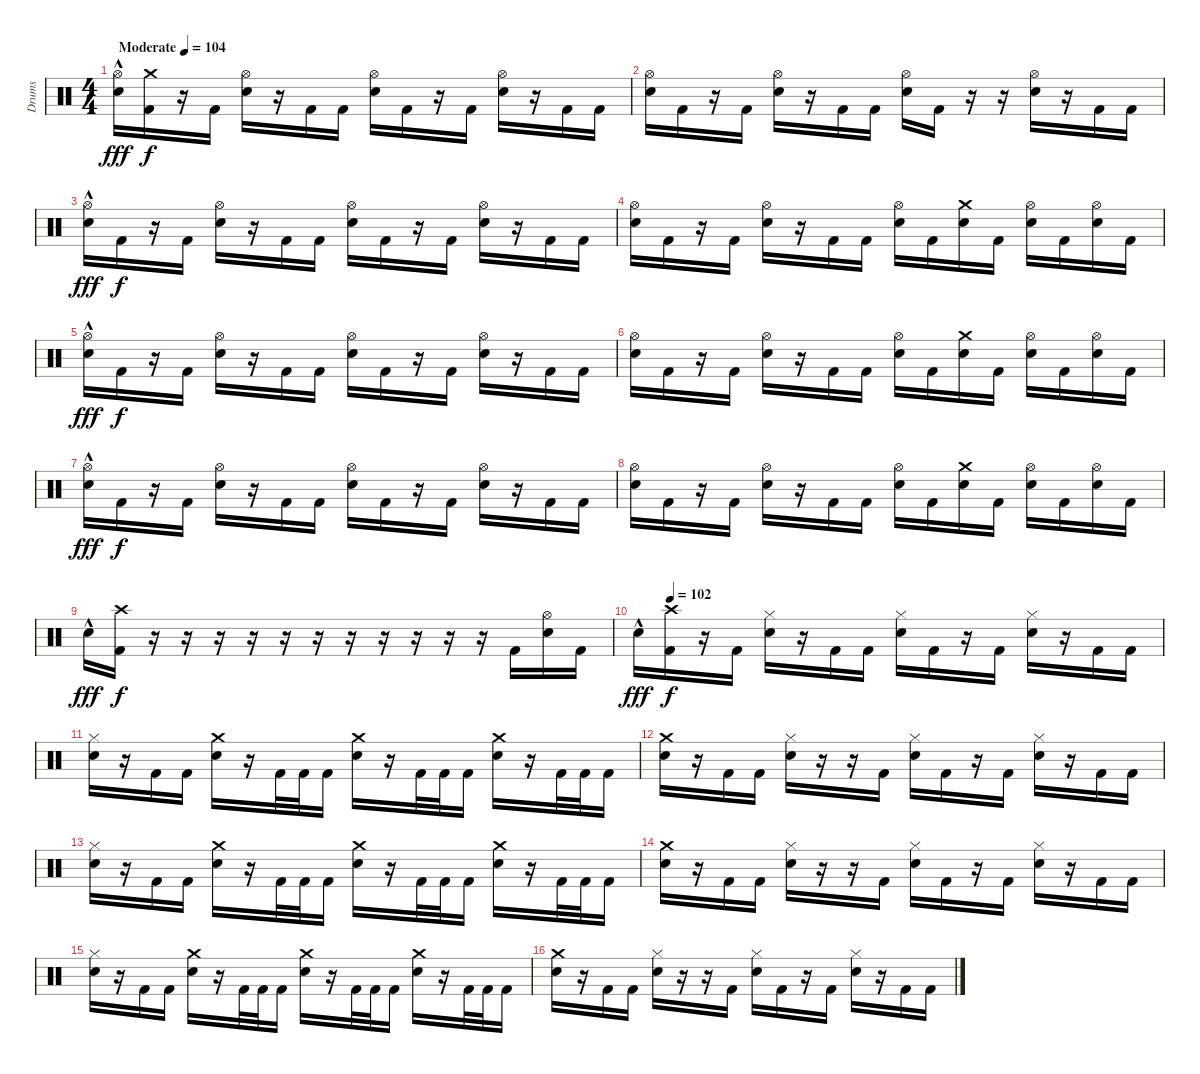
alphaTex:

\track ("Drums" "Drums") {instrument percussion}
\staff {score}
\articulation defaults
\ts (4 4)
\tempo (104 "Moderate")
\clef neutral
\ks c
("Hi-Hat (open)" "Electric Snare (hit)"{hac}).16{dy fff} ("Crash medium (hit)" "Kick (hit) 2").16{dy f} r.16 "Kick (hit) 2".16 ("Hi-Hat (open)" "Electric Snare (hit)").16 r.16 "Kick (hit) 2".16 "Kick (hit) 2".16 ("Hi-Hat (open)" "Electric Snare (hit)").16 "Kick (hit) 2".16 r.16 "Kick (hit) 2".16 ("Hi-Hat (open)" "Electric Snare (hit)").16 r.16 "Kick (hit) 2".16 "Kick (hit) 2".16 |
("Hi-Hat (open)" "Electric Snare (hit)").16 "Kick (hit) 2".16 r.16 "Kick (hit) 2".16 ("Hi-Hat (open)" "Electric Snare (hit)").16 r.16 "Kick (hit) 2".16 "Kick (hit) 2".16 ("Hi-Hat (open)" "Electric Snare (hit)").16 "Kick (hit) 2".16 r.16 r.16 ("Hi-Hat (open)" "Electric Snare (hit)").16 r.16 "Kick (hit) 2".16 "Kick (hit) 2".16 |
("Hi-Hat (open)" "Electric Snare (hit)"{hac}).16{dy fff} "Kick (hit) 2".16{dy f} r.16 "Kick (hit) 2".16 ("Hi-Hat (open)" "Electric Snare (hit)").16 r.16 "Kick (hit) 2".16 "Kick (hit) 2".16 ("Hi-Hat (open)" "Electric Snare (hit)").16 "Kick (hit) 2".16 r.16 "Kick (hit) 2".16 ("Hi-Hat (open)" "Electric Snare (hit)").16 r.16 "Kick (hit) 2".16 "Kick (hit) 2".16 |
("Hi-Hat (open)" "Electric Snare (hit)").16 "Kick (hit) 2".16 r.16 "Kick (hit) 2".16 ("Hi-Hat (open)" "Electric Snare (hit)").16 r.16 "Kick (hit) 2".16 "Kick (hit) 2".16 ("Hi-Hat (open)" "Electric Snare (hit)").16 "Kick (hit) 2".16 ("Crash medium (hit)" "Electric Snare (hit)").16 "Kick (hit) 2".16 ("Hi-Hat (open)" "Electric Snare (hit)").16 "Kick (hit) 2".16 ("Hi-Hat (open)" "Electric Snare (hit)").16 "Kick (hit) 2".16 |
("Hi-Hat (open)" "Electric Snare (hit)"{hac}).16{dy fff} "Kick (hit) 2".16{dy f} r.16 "Kick (hit) 2".16 ("Hi-Hat (open)" "Electric Snare (hit)").16 r.16 "Kick (hit) 2".16 "Kick (hit) 2".16 ("Hi-Hat (open)" "Electric Snare (hit)").16 "Kick (hit) 2".16 r.16 "Kick (hit) 2".16 ("Hi-Hat (open)" "Electric Snare (hit)").16 r.16 "Kick (hit) 2".16 "Kick (hit) 2".16 |
("Hi-Hat (open)" "Electric Snare (hit)").16 "Kick (hit) 2".16 r.16 "Kick (hit) 2".16 ("Hi-Hat (open)" "Electric Snare (hit)").16 r.16 "Kick (hit) 2".16 "Kick (hit) 2".16 ("Hi-Hat (open)" "Electric Snare (hit)").16 "Kick (hit) 2".16 ("Crash medium (hit)" "Electric Snare (hit)").16 "Kick (hit) 2".16 ("Hi-Hat (open)" "Electric Snare (hit)").16 "Kick (hit) 2".16 ("Hi-Hat (open)" "Electric Snare (hit)").16 "Kick (hit) 2".16 |
("Hi-Hat (open)" "Electric Snare (hit)"{hac}).16{dy fff} "Kick (hit) 2".16{dy f} r.16 "Kick (hit) 2".16 ("Hi-Hat (open)" "Electric Snare (hit)").16 r.16 "Kick (hit) 2".16 "Kick (hit) 2".16 ("Hi-Hat (open)" "Electric Snare (hit)").16 "Kick (hit) 2".16 r.16 "Kick (hit) 2".16 ("Hi-Hat (open)" "Electric Snare (hit)").16 r.16 "Kick (hit) 2".16 "Kick (hit) 2".16 |
("Hi-Hat (open)" "Electric Snare (hit)").16 "Kick (hit) 2".16 r.16 "Kick (hit) 2".16 ("Hi-Hat (open)" "Electric Snare (hit)").16 r.16 "Kick (hit) 2".16 "Kick (hit) 2".16 ("Hi-Hat (open)" "Electric Snare (hit)").16 "Kick (hit) 2".16 ("Crash medium (hit)" "Electric Snare (hit)").16 "Kick (hit) 2".16 ("Hi-Hat (open)" "Electric Snare (hit)").16 "Kick (hit) 2".16 ("Hi-Hat (open)" "Electric Snare (hit)").16 "Kick (hit) 2".16 |
"Electric Snare (hit)"{hac}.16{dy fff} ("Crash high (hit)" "Kick (hit) 2").16{dy f} r.16 r.16 r.16 r.16 r.16 r.16 r.16 r.16 r.16 r.16 r.16 "Kick (hit) 2".16 ("Hi-Hat (open)" "Electric Snare (hit)").16 "Kick (hit) 2".16 |
\tempo (102 0.0625)
"Electric Snare (hit)"{hac}.16{dy fff} ("Crash high (hit)" "Kick (hit) 2").16{dy f} r.16 "Kick (hit) 2".16 ("Hi-Hat (closed)" "Electric Snare (hit)").16 r.16 "Kick (hit) 2".16 "Kick (hit) 2".16 ("Hi-Hat (closed)" "Electric Snare (hit)").16 "Kick (hit) 2".16 r.16 "Kick (hit) 2".16 ("Hi-Hat (closed)" "Electric Snare (hit)").16 r.16 "Kick (hit) 2".16 "Kick (hit) 2".16 |
("Hi-Hat (closed)" "Electric Snare (hit)").16 r.16 "Kick (hit) 2".16 "Kick (hit) 2".16 ("Crash medium (hit)" "Electric Snare (hit)").16 r.16 "Kick (hit) 2".32 "Kick (hit) 2".32 "Kick (hit) 2".16 ("Crash medium (hit)" "Electric Snare (hit)").16 r.16 "Kick (hit) 2".32 "Kick (hit) 2".32 "Kick (hit) 2".16 ("Crash medium (hit)" "Electric Snare (hit)").16 r.16 "Kick (hit) 2".32 "Kick (hit) 2".32 "Kick (hit) 2".16 |
("Crash medium (hit)" "Electric Snare (hit)").16 r.16 "Kick (hit) 2".16 "Kick (hit) 2".16 ("Hi-Hat (closed)" "Electric Snare (hit)").16 r.16 r.16 "Kick (hit) 2".16 ("Hi-Hat (closed)" "Electric Snare (hit)").16 "Kick (hit) 2".16 r.16 "Kick (hit) 2".16 ("Hi-Hat (closed)" "Electric Snare (hit)").16 r.16 "Kick (hit) 2".16 "Kick (hit) 2".16 |
("Hi-Hat (closed)" "Electric Snare (hit)").16 r.16 "Kick (hit) 2".16 "Kick (hit) 2".16 ("Crash medium (hit)" "Electric Snare (hit)").16 r.16 "Kick (hit) 2".32 "Kick (hit) 2".32 "Kick (hit) 2".16 ("Crash medium (hit)" "Electric Snare (hit)").16 r.16 "Kick (hit) 2".32 "Kick (hit) 2".32 "Kick (hit) 2".16 ("Crash medium (hit)" "Electric Snare (hit)").16 r.16 "Kick (hit) 2".32 "Kick (hit) 2".32 "Kick (hit) 2".16 |
("Crash medium (hit)" "Electric Snare (hit)").16 r.16 "Kick (hit) 2".16 "Kick (hit) 2".16 ("Hi-Hat (closed)" "Electric Snare (hit)").16 r.16 r.16 "Kick (hit) 2".16 ("Hi-Hat (closed)" "Electric Snare (hit)").16 "Kick (hit) 2".16 r.16 "Kick (hit) 2".16 ("Hi-Hat (closed)" "Electric Snare (hit)").16 r.16 "Kick (hit) 2".16 "Kick (hit) 2".16 |
("Hi-Hat (closed)" "Electric Snare (hit)").16 r.16 "Kick (hit) 2".16 "Kick (hit) 2".16 ("Crash medium (hit)" "Electric Snare (hit)").16 r.16 "Kick (hit) 2".32 "Kick (hit) 2".32 "Kick (hit) 2".16 ("Crash medium (hit)" "Electric Snare (hit)").16 r.16 "Kick (hit) 2".32 "Kick (hit) 2".32 "Kick (hit) 2".16 ("Crash medium (hit)" "Electric Snare (hit)").16 r.16 "Kick (hit) 2".32 "Kick (hit) 2".32 "Kick (hit) 2".16 |
("Crash medium (hit)" "Electric Snare (hit)").16 r.16 "Kick (hit) 2".16 "Kick (hit) 2".16 ("Hi-Hat (closed)" "Electric Snare (hit)").16 r.16 r.16 "Kick (hit) 2".16 ("Hi-Hat (closed)" "Electric Snare (hit)").16 "Kick (hit) 2".16 r.16 "Kick (hit) 2".16 ("Hi-Hat (closed)" "Electric Snare (hit)").16 r.16 "Kick (hit) 2".16 "Kick (hit) 2".16
